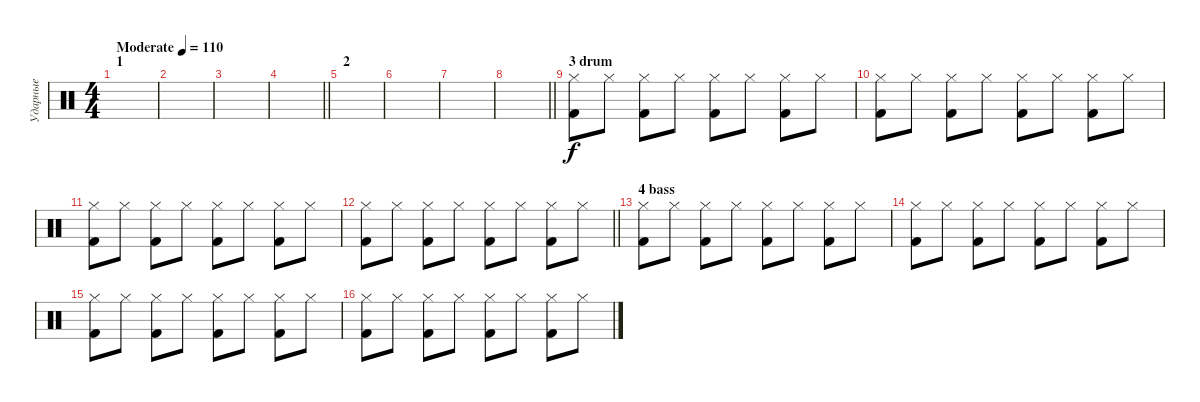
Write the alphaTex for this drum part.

\track ("Ударные" "Ударные") {instrument percussion}
\staff {score}
\articulation defaults
\ts (4 4)
\section ("" "1")
\tempo (110 "Moderate")
\clef neutral
\ks c
|
|
|
\barLineRight lightlight
|
\section ("" "2")
|
|
|
\barLineRight lightlight
|
\section ("" "3 drum")
("Hi-Hat (closed)" "Kick (hit) 2").8 "Hi-Hat (closed)".8 ("Hi-Hat (closed)" "Kick (hit) 2").8 "Hi-Hat (closed)".8 ("Hi-Hat (closed)" "Kick (hit) 2").8 "Hi-Hat (closed)".8 ("Hi-Hat (closed)" "Kick (hit) 2").8 "Hi-Hat (closed)".8 |
("Hi-Hat (closed)" "Kick (hit) 2").8 "Hi-Hat (closed)".8 ("Hi-Hat (closed)" "Kick (hit) 2").8 "Hi-Hat (closed)".8 ("Hi-Hat (closed)" "Kick (hit) 2").8 "Hi-Hat (closed)".8 ("Hi-Hat (closed)" "Kick (hit) 2").8 "Hi-Hat (closed)".8 |
("Hi-Hat (closed)" "Kick (hit) 2").8 "Hi-Hat (closed)".8 ("Hi-Hat (closed)" "Kick (hit) 2").8 "Hi-Hat (closed)".8 ("Hi-Hat (closed)" "Kick (hit) 2").8 "Hi-Hat (closed)".8 ("Hi-Hat (closed)" "Kick (hit) 2").8 "Hi-Hat (closed)".8 |
\barLineRight lightlight
("Hi-Hat (closed)" "Kick (hit) 2").8 "Hi-Hat (closed)".8 ("Hi-Hat (closed)" "Kick (hit) 2").8 "Hi-Hat (closed)".8 ("Hi-Hat (closed)" "Kick (hit) 2").8 "Hi-Hat (closed)".8 ("Hi-Hat (closed)" "Kick (hit) 2").8 "Hi-Hat (closed)".8 |
\section ("" "4 bass")
("Hi-Hat (closed)" "Kick (hit) 2").8 "Hi-Hat (closed)".8 ("Hi-Hat (closed)" "Kick (hit) 2").8 "Hi-Hat (closed)".8 ("Hi-Hat (closed)" "Kick (hit) 2").8 "Hi-Hat (closed)".8 ("Hi-Hat (closed)" "Kick (hit) 2").8 "Hi-Hat (closed)".8 |
("Hi-Hat (closed)" "Kick (hit) 2").8 "Hi-Hat (closed)".8 ("Hi-Hat (closed)" "Kick (hit) 2").8 "Hi-Hat (closed)".8 ("Hi-Hat (closed)" "Kick (hit) 2").8 "Hi-Hat (closed)".8 ("Hi-Hat (closed)" "Kick (hit) 2").8 "Hi-Hat (closed)".8 |
("Hi-Hat (closed)" "Kick (hit) 2").8 "Hi-Hat (closed)".8 ("Hi-Hat (closed)" "Kick (hit) 2").8 "Hi-Hat (closed)".8 ("Hi-Hat (closed)" "Kick (hit) 2").8 "Hi-Hat (closed)".8 ("Hi-Hat (closed)" "Kick (hit) 2").8 "Hi-Hat (closed)".8 |
("Hi-Hat (closed)" "Kick (hit) 2").8 "Hi-Hat (closed)".8 ("Hi-Hat (closed)" "Kick (hit) 2").8 "Hi-Hat (closed)".8 ("Hi-Hat (closed)" "Kick (hit) 2").8 "Hi-Hat (closed)".8 ("Hi-Hat (closed)" "Kick (hit) 2").8 "Hi-Hat (closed)".8
